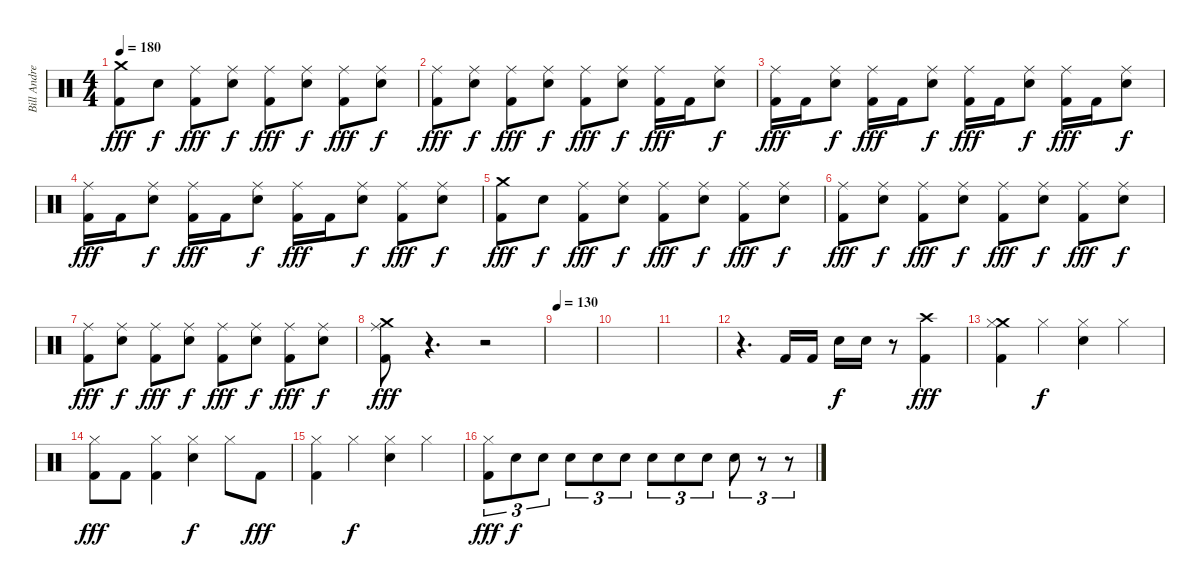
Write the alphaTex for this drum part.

\track ("Bill Andrews" "Bill Andre") {instrument percussion}
\staff {score}
\articulation defaults
\ts (4 4)
\tempo 180
\clef neutral
\ks c
("Crash medium (hit)" "Kick (hit) 2").8{dy fff} "Electric Snare (hit)".8{dy f} ("Ride (middle)" "Kick (hit) 2").8{dy fff} ("Ride (middle)" "Electric Snare (hit)").8{dy f} ("Ride (middle)" "Kick (hit) 2").8{dy fff} ("Ride (middle)" "Electric Snare (hit)").8{dy f} ("Ride (middle)" "Kick (hit) 2").8{dy fff} ("Ride (middle)" "Electric Snare (hit)").8{dy f} |
("Ride (middle)" "Kick (hit) 2").8{dy fff} ("Ride (middle)" "Electric Snare (hit)").8{dy f} ("Ride (middle)" "Kick (hit) 2").8{dy fff} ("Ride (middle)" "Electric Snare (hit)").8{dy f} ("Ride (middle)" "Kick (hit) 2").8{dy fff} ("Ride (middle)" "Electric Snare (hit)").8{dy f} ("Ride (middle)" "Kick (hit) 2").16{dy fff} "Kick (hit) 2".16 ("Ride (middle)" "Electric Snare (hit)").8{dy f} |
("Ride (middle)" "Kick (hit) 2").16{dy fff} "Kick (hit) 2".16 ("Ride (middle)" "Electric Snare (hit)").8{dy f} ("Ride (middle)" "Kick (hit) 2").16{dy fff} "Kick (hit) 2".16 ("Ride (middle)" "Electric Snare (hit)").8{dy f} ("Ride (middle)" "Kick (hit) 2").16{dy fff} "Kick (hit) 2".16 ("Ride (middle)" "Electric Snare (hit)").8{dy f} ("Ride (middle)" "Kick (hit) 2").16{dy fff} "Kick (hit) 2".16 ("Ride (middle)" "Electric Snare (hit)").8{dy f} |
("Ride (middle)" "Kick (hit) 2").16{dy fff} "Kick (hit) 2".16 ("Ride (middle)" "Electric Snare (hit)").8{dy f} ("Ride (middle)" "Kick (hit) 2").16{dy fff} "Kick (hit) 2".16 ("Ride (middle)" "Electric Snare (hit)").8{dy f} ("Ride (middle)" "Kick (hit) 2").16{dy fff} "Kick (hit) 2".16 ("Ride (middle)" "Electric Snare (hit)").8{dy f} ("Ride (middle)" "Kick (hit) 2").8{dy fff} ("Ride (middle)" "Electric Snare (hit)").8{dy f} |
("Crash medium (hit)" "Kick (hit) 2").8{dy fff} "Electric Snare (hit)".8{dy f} ("Ride (middle)" "Kick (hit) 2").8{dy fff} ("Ride (middle)" "Electric Snare (hit)").8{dy f} ("Ride (middle)" "Kick (hit) 2").8{dy fff} ("Ride (middle)" "Electric Snare (hit)").8{dy f} ("Ride (middle)" "Kick (hit) 2").8{dy fff} ("Ride (middle)" "Electric Snare (hit)").8{dy f} |
("Ride (middle)" "Kick (hit) 2").8{dy fff} ("Ride (middle)" "Electric Snare (hit)").8{dy f} ("Ride (middle)" "Kick (hit) 2").8{dy fff} ("Ride (middle)" "Electric Snare (hit)").8{dy f} ("Ride (middle)" "Kick (hit) 2").8{dy fff} ("Ride (middle)" "Electric Snare (hit)").8{dy f} ("Ride (middle)" "Kick (hit) 2").8{dy fff} ("Ride (middle)" "Electric Snare (hit)").8{dy f} |
("Ride (middle)" "Kick (hit) 2").8{dy fff} ("Ride (middle)" "Electric Snare (hit)").8{dy f} ("Ride (middle)" "Kick (hit) 2").8{dy fff} ("Ride (middle)" "Electric Snare (hit)").8{dy f} ("Ride (middle)" "Kick (hit) 2").8{dy fff} ("Ride (middle)" "Electric Snare (hit)").8{dy f} ("Ride (middle)" "Kick (hit) 2").8{dy fff} ("Ride (middle)" "Electric Snare (hit)").8{dy f} |
("Crash medium (hit)" "Ride (middle)" "Kick (hit) 2").8{dy fff} r.4{d} r.2 |
\tempo 130
|
|
|
r.4{d} "Kick (hit) 2".16 "Kick (hit) 2".16 "Electric Snare (hit)".16{dy f} "Electric Snare (hit)".16 r.8 ("Crash high (hit)" "Kick (hit) 2").4{dy fff} |
("Crash medium (hit)" "Hi-Hat (closed)" "Kick (hit) 2").4 "Hi-Hat (closed)".4{dy f} ("Hi-Hat (closed)" "Electric Snare (hit)").4 "Hi-Hat (closed)".4 |
("Hi-Hat (closed)" "Kick (hit) 2").8{dy fff} "Kick (hit) 2".8 ("Hi-Hat (closed)" "Kick (hit) 2").4 ("Hi-Hat (closed)" "Electric Snare (hit)").4{dy f} "Hi-Hat (closed)".8 "Kick (hit) 2".8{dy fff} |
("Hi-Hat (closed)" "Kick (hit) 2").4 "Hi-Hat (closed)".4{dy f} ("Hi-Hat (closed)" "Electric Snare (hit)").4 "Hi-Hat (closed)".4 |
("Hi-Hat (closed)" "Kick (hit) 2").8{tu (3 2) dy fff} "Electric Snare (hit)".8{tu (3 2) dy f} "Electric Snare (hit)".8{tu (3 2)} "Electric Snare (hit)".8{tu (3 2)} "Electric Snare (hit)".8{tu (3 2)} "Electric Snare (hit)".8{tu (3 2)} "Electric Snare (hit)".8{tu (3 2)} "Electric Snare (hit)".8{tu (3 2)} "Electric Snare (hit)".8{tu (3 2)} "Electric Snare (hit)".8{tu (3 2)} r.8{tu (3 2)} r.8{tu (3 2)}
